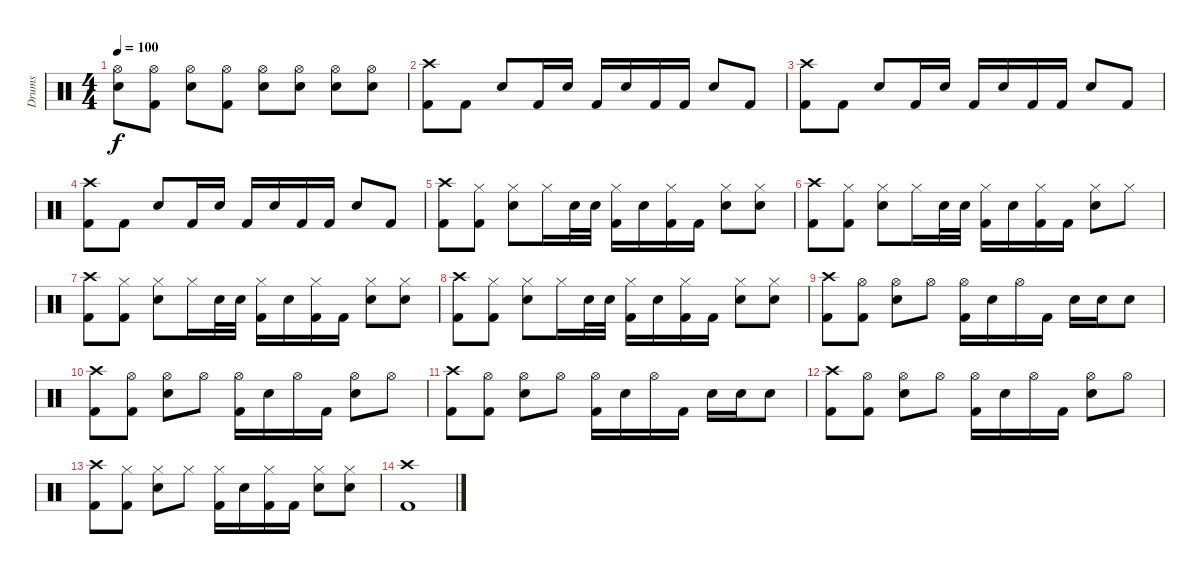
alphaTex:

\track ("Drums" "Drums") {instrument percussion}
\staff {score}
\articulation defaults
\ts (4 4)
\tempo 100
\clef neutral
\ks c
("Snare (hit) 2" "Hi-Hat (open)").8{dy f} ("Kick (hit) 2" "Hi-Hat (open)").8 ("Snare (hit) 2" "Hi-Hat (open)").8 ("Kick (hit) 2" "Hi-Hat (open)").8 ("Snare (hit) 2" "Hi-Hat (open)").8 ("Snare (hit) 2" "Hi-Hat (open)").8 ("Snare (hit) 2" "Hi-Hat (open)").8 ("Snare (hit) 2" "Hi-Hat (open)").8 |
("Kick (hit) 2" "Crash high (hit)").8 "Kick (hit) 2".8 "Snare (hit) 2".8 "Kick (hit) 2".16 "Snare (hit) 2".16 "Kick (hit) 2".16 "Snare (hit) 2".16 "Kick (hit) 2".16 "Kick (hit) 2".16 "Snare (hit) 2".8 "Kick (hit) 2".8 |
("Kick (hit) 2" "Crash high (hit)").8 "Kick (hit) 2".8 "Snare (hit) 2".8 "Kick (hit) 2".16 "Snare (hit) 2".16 "Kick (hit) 2".16 "Snare (hit) 2".16 "Kick (hit) 2".16 "Kick (hit) 2".16 "Snare (hit) 2".8 "Kick (hit) 2".8 |
("Kick (hit) 2" "Crash high (hit)").8 "Kick (hit) 2".8 "Snare (hit) 2".8 "Kick (hit) 2".16 "Snare (hit) 2".16 "Kick (hit) 2".16 "Snare (hit) 2".16 "Kick (hit) 2".16 "Kick (hit) 2".16 "Snare (hit) 2".8 "Kick (hit) 2".8 |
("Kick (hit) 2" "Crash high (hit)").8 ("Kick (hit) 2" "Hi-Hat (closed)").8 ("Snare (hit) 2" "Hi-Hat (closed)").8 "Hi-Hat (closed)".16 "Snare (hit) 2".32 "Snare (hit) 2".32 ("Kick (hit) 2" "Hi-Hat (closed)").16 "Snare (hit) 2".16 ("Kick (hit) 2" "Hi-Hat (closed)").16 "Kick (hit) 2".16 ("Snare (hit) 2" "Hi-Hat (closed)").8 ("Snare (hit) 2" "Hi-Hat (closed)").8 |
("Kick (hit) 2" "Crash high (hit)").8 ("Kick (hit) 2" "Hi-Hat (closed)").8 ("Snare (hit) 2" "Hi-Hat (closed)").8 "Hi-Hat (closed)".16 "Snare (hit) 2".32 "Snare (hit) 2".32 ("Kick (hit) 2" "Hi-Hat (closed)").16 "Snare (hit) 2".16 ("Kick (hit) 2" "Hi-Hat (closed)").16 "Kick (hit) 2".16 ("Snare (hit) 2" "Hi-Hat (closed)").8 "Hi-Hat (closed)".8 |
("Kick (hit) 2" "Crash high (hit)").8 ("Kick (hit) 2" "Hi-Hat (closed)").8 ("Snare (hit) 2" "Hi-Hat (closed)").8 "Hi-Hat (closed)".16 "Snare (hit) 2".32 "Snare (hit) 2".32 ("Kick (hit) 2" "Hi-Hat (closed)").16 "Snare (hit) 2".16 ("Kick (hit) 2" "Hi-Hat (closed)").16 "Kick (hit) 2".16 ("Snare (hit) 2" "Hi-Hat (closed)").8 ("Snare (hit) 2" "Hi-Hat (closed)").8 |
("Kick (hit) 2" "Crash high (hit)").8 ("Kick (hit) 2" "Hi-Hat (closed)").8 ("Snare (hit) 2" "Hi-Hat (closed)").8 "Hi-Hat (closed)".16 "Snare (hit) 2".32 "Snare (hit) 2".32 ("Kick (hit) 2" "Hi-Hat (closed)").16 "Snare (hit) 2".16 ("Kick (hit) 2" "Hi-Hat (closed)").16 "Kick (hit) 2".16 ("Snare (hit) 2" "Hi-Hat (closed)").8 ("Snare (hit) 2" "Hi-Hat (closed)").8 |
("Kick (hit) 2" "Crash high (hit)").8 ("Kick (hit) 2" "Hi-Hat (open)").8 ("Snare (hit) 2" "Hi-Hat (open)").8 "Hi-Hat (open)".8 ("Kick (hit) 2" "Hi-Hat (open)").16 "Snare (hit) 2".16 "Hi-Hat (open)".16 "Kick (hit) 2".16 "Snare (hit) 2".16 "Snare (hit) 2".16 "Snare (hit) 2".8 |
("Kick (hit) 2" "Crash high (hit)").8 ("Kick (hit) 2" "Hi-Hat (open)").8 ("Snare (hit) 2" "Hi-Hat (open)").8 "Hi-Hat (open)".8 ("Kick (hit) 2" "Hi-Hat (open)").16 "Snare (hit) 2".16 "Hi-Hat (open)".16 "Kick (hit) 2".16 ("Snare (hit) 2" "Hi-Hat (open)").8 "Hi-Hat (open)".8 |
("Kick (hit) 2" "Crash high (hit)").8 ("Kick (hit) 2" "Hi-Hat (open)").8 ("Snare (hit) 2" "Hi-Hat (open)").8 "Hi-Hat (open)".8 ("Kick (hit) 2" "Hi-Hat (open)").16 "Snare (hit) 2".16 "Hi-Hat (open)".16 "Kick (hit) 2".16 "Snare (hit) 2".16 "Snare (hit) 2".16 "Snare (hit) 2".8 |
("Kick (hit) 2" "Crash high (hit)").8 ("Kick (hit) 2" "Hi-Hat (open)").8 ("Snare (hit) 2" "Hi-Hat (open)").8 "Hi-Hat (open)".8 ("Kick (hit) 2" "Hi-Hat (open)").16 "Snare (hit) 2".16 "Hi-Hat (open)".16 "Kick (hit) 2".16 ("Snare (hit) 2" "Hi-Hat (open)").8 "Hi-Hat (open)".8 |
("Kick (hit) 2" "Crash high (hit)").8 ("Kick (hit) 2" "Hi-Hat (closed)").8 ("Snare (hit) 2" "Hi-Hat (closed)").8 "Hi-Hat (closed)".8 ("Kick (hit) 2" "Hi-Hat (closed)").16 "Snare (hit) 2".16 ("Kick (hit) 2" "Hi-Hat (closed)").16 "Kick (hit) 2".16 ("Snare (hit) 2" "Hi-Hat (closed)").8 ("Snare (hit) 2" "Hi-Hat (closed)").8 |
("Kick (hit) 2" "Crash high (hit)").1
